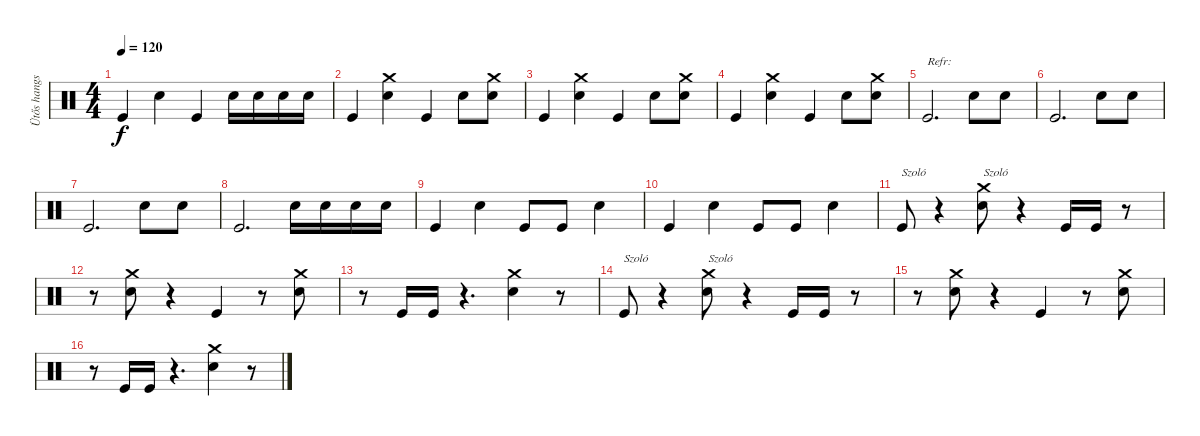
\track ("Ütős hangszer" "Ütős hangs") {instrument percussion}
\staff {score}
\articulation defaults
\ts (4 4)
\tempo 120
\clef neutral
\ks c "Kick (hit)".4{dy f} "Snare (hit) 2".4 "Kick (hit)".4 "Snare (hit) 2".16 "Snare (hit) 2".16 "Snare (hit) 2".16 "Snare (hit) 2".16
|
"Kick (hit)".4 ("Crash medium (hit)" "Snare (hit) 2").4 "Kick (hit)".4 "Snare (hit) 2".8 ("Crash medium (hit)" "Snare (hit) 2").8 |
"Kick (hit)".4 ("Crash medium (hit)" "Snare (hit) 2").4 "Kick (hit)".4 "Snare (hit) 2".8 ("Crash medium (hit)" "Snare (hit) 2").8 |
"Kick (hit)".4 ("Crash medium (hit)" "Snare (hit) 2").4 "Kick (hit)".4 "Snare (hit) 2".8 ("Crash medium (hit)" "Snare (hit) 2").8 |
"Kick (hit)".2{d txt "Refr:"} "Snare (hit) 2".8 "Snare (hit) 2".8 |
"Kick (hit)".2{d} "Snare (hit) 2".8 "Snare (hit) 2".8 |
"Kick (hit)".2{d} "Snare (hit) 2".8 "Snare (hit) 2".8 |
"Kick (hit)".2{d} "Snare (hit) 2".16 "Snare (hit) 2".16 "Snare (hit) 2".16 "Snare (hit) 2".16 |
"Kick (hit)".4 "Snare (hit) 2".4 "Kick (hit)".8 "Kick (hit)".8 "Snare (hit) 2".4 |
"Kick (hit)".4 "Snare (hit) 2".4 "Kick (hit)".8 "Kick (hit)".8 "Snare (hit) 2".4 |
"Kick (hit)".8{txt "Szoló"} r.4 ("Crash medium (hit)" "Snare (hit) 2").8{txt "Szoló"} r.4 "Kick (hit)".16 "Kick (hit)".16 r.8 |
r.8 ("Crash medium (hit)" "Snare (hit) 2").8 r.4 "Kick (hit)".4 r.8 ("Crash medium (hit)" "Snare (hit) 2").8 |
r.8 "Kick (hit)".16 "Kick (hit)".16 r.4{d} ("Crash medium (hit)" "Snare (hit) 2").4 r.8 |
"Kick (hit)".8{txt "Szoló"} r.4 ("Crash medium (hit)" "Snare (hit) 2").8{txt "Szoló"} r.4 "Kick (hit)".16 "Kick (hit)".16 r.8 |
r.8 ("Crash medium (hit)" "Snare (hit) 2").8 r.4 "Kick (hit)".4 r.8 ("Crash medium (hit)" "Snare (hit) 2").8 |
r.8 "Kick (hit)".16 "Kick (hit)".16 r.4{d} ("Crash medium (hit)" "Snare (hit) 2").4 r.8
